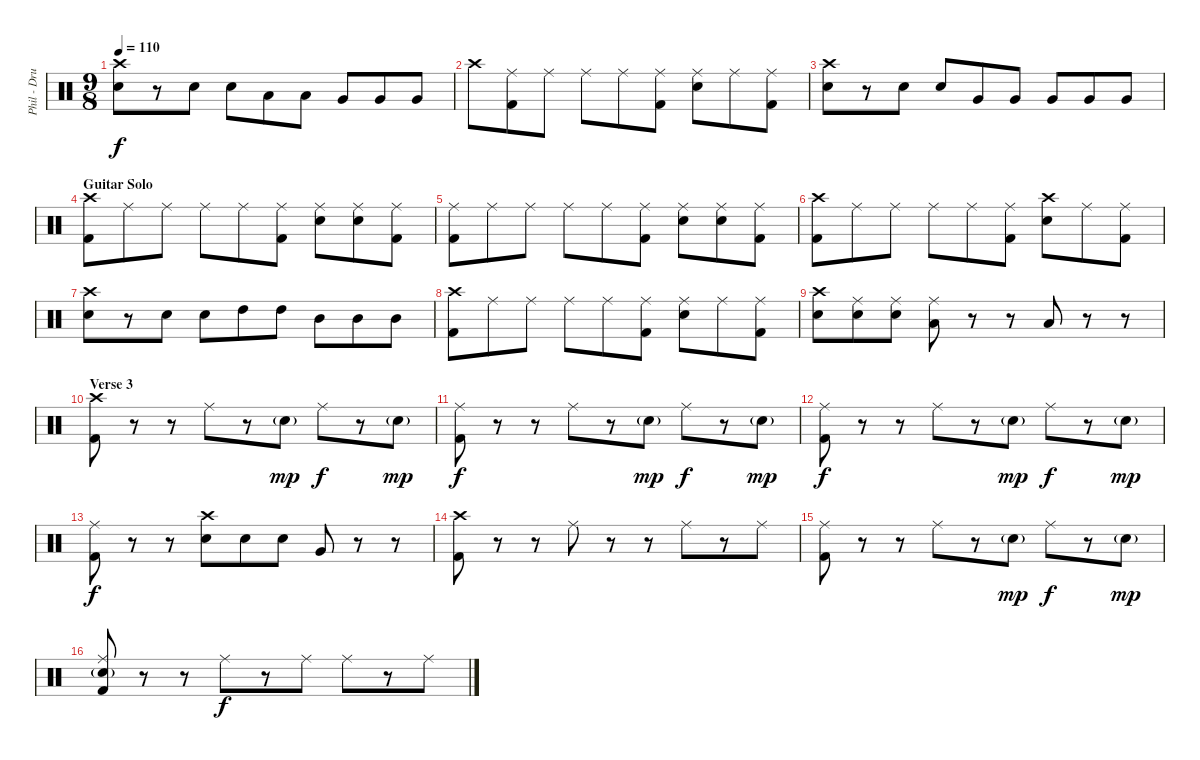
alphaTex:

\track ("Phil - Drums" "Phil - Dru") {instrument percussion}
\staff {score}
\articulation defaults
\ts (9 8)
\tempo 110
\clef neutral
\ks c
("Crash high (hit)" "Electric Snare (hit)").8{dy f} r.8 "Snare (hit) 2".8 "Electric Snare (hit)".8 "Low Tom (hit)".8 "Low Tom (hit)".8 "Very Low Tom (hit)".8 "Very Low Tom (hit)".8 "Very Low Tom (hit)".8 |
"Crash high (hit)".8 ("Ride (middle)" "Kick (hit) 2").8 "Ride (middle)".8 "Ride (middle)".8 "Ride (middle)".8 ("Ride (middle)" "Kick (hit) 2").8 ("Ride (middle)" "Electric Snare (hit)").8 "Ride (middle)".8 ("Ride (middle)" "Kick (hit) 2").8 |
("Crash high (hit)" "Electric Snare (hit)").8 r.8 "Electric Snare (hit)".8 "Electric Snare (hit)".8 "Very Low Tom (hit)".8 "Very Low Tom (hit)".8 "Very Low Tom (hit)".8 "Very Low Tom (hit)".8 "Very Low Tom (hit)".8 |
\section ("" "Guitar Solo")
("Crash high (hit)" "Kick (hit) 2").8 "Ride (middle)".8 "Ride (middle)".8 "Ride (middle)".8 "Ride (middle)".8 ("Ride (middle)" "Kick (hit) 2").8 ("Ride (middle)" "Electric Snare (hit)").8 ("Ride (middle)" "Electric Snare (hit)").8 ("Ride (middle)" "Kick (hit) 2").8 |
("Ride (middle)" "Kick (hit) 2").8 "Ride (middle)".8 "Ride (middle)".8 "Ride (middle)".8 "Ride (middle)".8 ("Ride (middle)" "Kick (hit) 2").8 ("Ride (middle)" "Electric Snare (hit)").8 ("Ride (middle)" "Electric Snare (hit)").8 ("Ride (middle)" "Kick (hit) 2").8 |
("Crash high (hit)" "Kick (hit) 2").8 "Ride (middle)".8 "Ride (middle)".8 "Ride (middle)".8 "Ride (middle)".8 ("Ride (middle)" "Kick (hit) 2").8 ("Crash high (hit)" "Electric Snare (hit)").8 "Ride (middle)".8 ("Ride (middle)" "Kick (hit) 2").8 |
("Crash high (hit)" "Electric Snare (hit)").8 r.8 "Snare (hit) 2".8 "Electric Snare (hit)".8 "High Tom (hit)".8 "High Tom (hit)".8 "Mid Tom (hit)".8 "Mid Tom (hit)".8 "Mid Tom (hit)".8 |
("Crash high (hit)" "Kick (hit) 2").8 "Ride (middle)".8 "Ride (middle)".8 "Ride (middle)".8 "Ride (middle)".8 ("Ride (middle)" "Kick (hit) 2").8 ("Ride (middle)" "Electric Snare (hit)").8 "Ride (middle)".8 ("Ride (middle)" "Kick (hit) 2").8 |
("Crash high (hit)" "Electric Snare (hit)").8 ("Ride (middle)" "Electric Snare (hit)").8 ("Ride (middle)" "Electric Snare (hit)").8 ("Ride (middle)" "Low Tom (hit)").8 r.8 r.8 "Low Floor Tom (hit)".8 r.8 r.8 |
\section ("" "Verse 3")
("Crash high (hit)" "Kick (hit) 2").8 r.8 r.8 "Ride (middle)".8 r.8 "Electric Snare (hit)"{g}.8{dy mp} "Ride (middle)".8{dy f} r.8 "Electric Snare (hit)"{g}.8{dy mp} |
("Ride (middle)" "Kick (hit) 2").8{dy f} r.8 r.8 "Ride (middle)".8 r.8 "Electric Snare (hit)"{g}.8{dy mp} "Ride (middle)".8{dy f} r.8 "Electric Snare (hit)"{g}.8{dy mp} |
("Ride (middle)" "Kick (hit) 2").8{dy f} r.8 r.8 "Ride (middle)".8 r.8 "Electric Snare (hit)"{g}.8{dy mp} "Ride (middle)".8{dy f} r.8 "Electric Snare (hit)"{g}.8{dy mp} |
("Ride (middle)" "Kick (hit) 2").8{dy f} r.8 r.8 ("Crash high (hit)" "Snare (hit) 2").8 "Electric Snare (hit)".8 "Electric Snare (hit)".8 "Very Low Tom (hit)".8 r.8 r.8 |
("Crash high (hit)" "Kick (hit) 2").8 r.8 r.8 "Ride (middle)".8 r.8 r.8 "Ride (middle)".8 r.8 "Ride (middle)".8 |
("Ride (middle)" "Kick (hit) 2").8 r.8 r.8 "Ride (middle)".8 r.8 "Electric Snare (hit)"{g}.8{dy mp} "Ride (middle)".8{dy f} r.8 "Electric Snare (hit)"{g}.8{dy mp} |
("Ride (middle)" "Electric Snare (hit)"{g} "Kick (hit) 2").8 r.8 r.8 "Ride (middle)".8{dy f} r.8 "Ride (middle)".8 "Ride (middle)".8 r.8 "Ride (middle)".8
